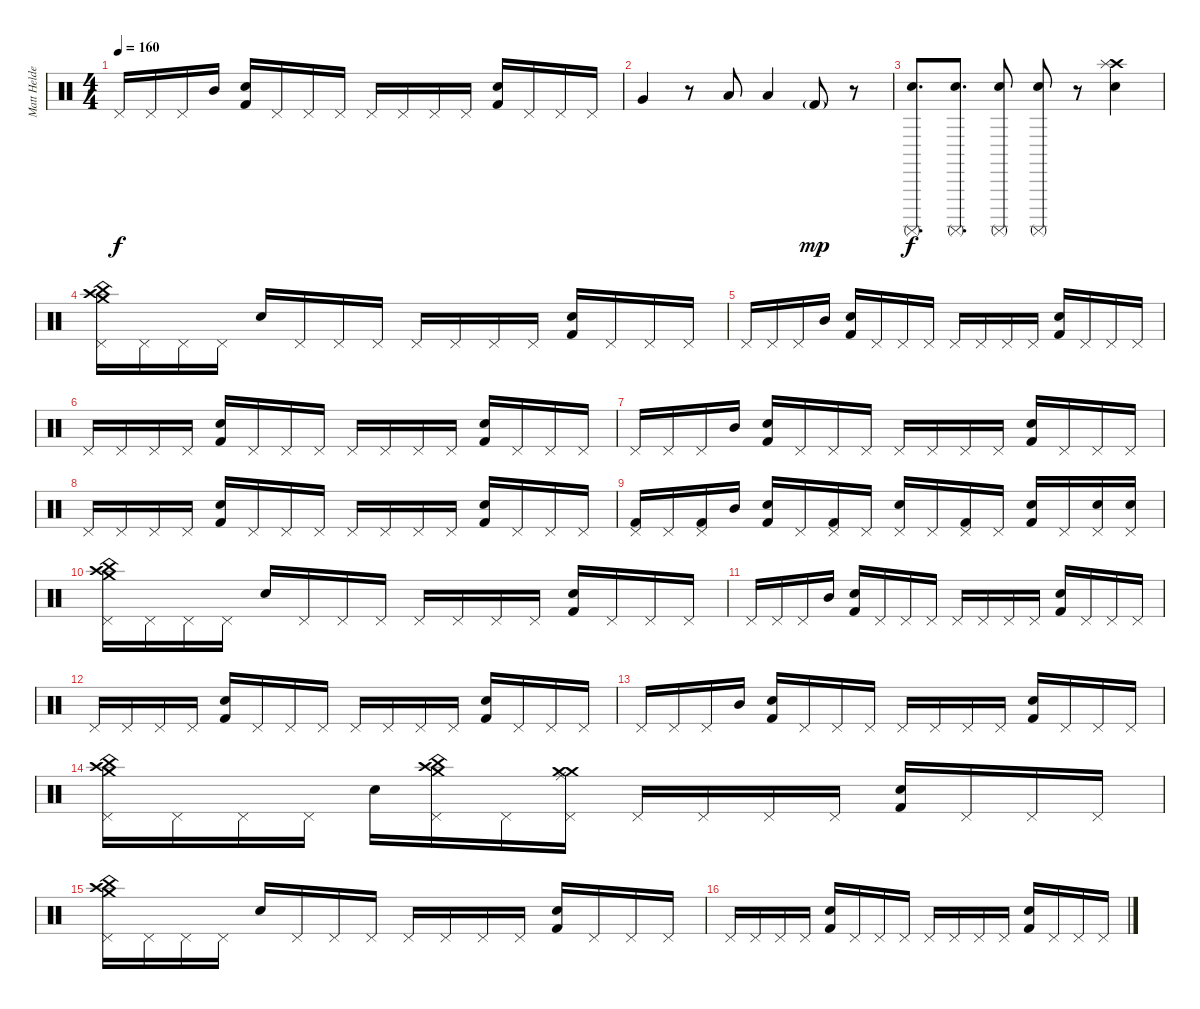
\track ("Matt Helders" "Matt Helde") {instrument percussion}
\staff {score}
\articulation defaults
\ts (4 4)
\tempo 160
\clef neutral
\ks c "Pedal Hi-Hat (hit)".16{dy f} "Pedal Hi-Hat (hit)".16 "Pedal Hi-Hat (hit)".16 "Mid Tom (hit)".16
("Snare (hit) 2" "Kick (hit) 2").16 "Pedal Hi-Hat (hit)".16 "Pedal Hi-Hat (hit)".16 "Pedal Hi-Hat (hit)".16 "Pedal Hi-Hat (hit)".16 "Pedal Hi-Hat (hit)".16 "Pedal Hi-Hat (hit)".16 "Pedal Hi-Hat (hit)".16 ("Snare (hit) 2" "Kick (hit) 2").16 "Pedal Hi-Hat (hit)".16 "Pedal Hi-Hat (hit)".16 "Pedal Hi-Hat (hit)".16 |
"Very Low Tom (hit)".4 r.8 "Low Tom (hit)".8 "Low Tom (hit)".4 "Kick (hit) 2"{g}.8{dy mp} r.8 |
("Surdo (mute)" "Electric Snare (hit)").8{d dy f} ("Surdo (mute)" "Electric Snare (hit)").8{d} ("Surdo (mute)" "Electric Snare (hit)").8 ("Surdo (mute)" "Electric Snare (hit)").8 r.8 ("Crash high (hit)" "Snare (hit) 2" "Splash (hit)").4 |
("Pedal Hi-Hat (hit)" "Crash medium (hit)" "Crash high (hit)" "China (hit)").16 "Pedal Hi-Hat (hit)".16 "Pedal Hi-Hat (hit)".16 "Pedal Hi-Hat (hit)".16 "Snare (hit) 2".16 "Pedal Hi-Hat (hit)".16 "Pedal Hi-Hat (hit)".16 "Pedal Hi-Hat (hit)".16 "Pedal Hi-Hat (hit)".16 "Pedal Hi-Hat (hit)".16 "Pedal Hi-Hat (hit)".16 "Pedal Hi-Hat (hit)".16 ("Snare (hit) 2" "Kick (hit) 2").16 "Pedal Hi-Hat (hit)".16 "Pedal Hi-Hat (hit)".16 "Pedal Hi-Hat (hit)".16 |
"Pedal Hi-Hat (hit)".16 "Pedal Hi-Hat (hit)".16 "Pedal Hi-Hat (hit)".16 "Mid Tom (hit)".16 ("Snare (hit) 2" "Kick (hit) 2").16 "Pedal Hi-Hat (hit)".16 "Pedal Hi-Hat (hit)".16 "Pedal Hi-Hat (hit)".16 "Pedal Hi-Hat (hit)".16 "Pedal Hi-Hat (hit)".16 "Pedal Hi-Hat (hit)".16 "Pedal Hi-Hat (hit)".16 ("Snare (hit) 2" "Kick (hit) 2").16 "Pedal Hi-Hat (hit)".16 "Pedal Hi-Hat (hit)".16 "Pedal Hi-Hat (hit)".16 |
"Pedal Hi-Hat (hit)".16 "Pedal Hi-Hat (hit)".16 "Pedal Hi-Hat (hit)".16 "Pedal Hi-Hat (hit)".16 ("Snare (hit) 2" "Kick (hit) 2").16 "Pedal Hi-Hat (hit)".16 "Pedal Hi-Hat (hit)".16 "Pedal Hi-Hat (hit)".16 "Pedal Hi-Hat (hit)".16 "Pedal Hi-Hat (hit)".16 "Pedal Hi-Hat (hit)".16 "Pedal Hi-Hat (hit)".16 ("Snare (hit) 2" "Kick (hit) 2").16 "Pedal Hi-Hat (hit)".16 "Pedal Hi-Hat (hit)".16 "Pedal Hi-Hat (hit)".16 |
"Pedal Hi-Hat (hit)".16 "Pedal Hi-Hat (hit)".16 "Pedal Hi-Hat (hit)".16 "Mid Tom (hit)".16 ("Snare (hit) 2" "Kick (hit) 2").16 "Pedal Hi-Hat (hit)".16 "Pedal Hi-Hat (hit)".16 "Pedal Hi-Hat (hit)".16 "Pedal Hi-Hat (hit)".16 "Pedal Hi-Hat (hit)".16 "Pedal Hi-Hat (hit)".16 "Pedal Hi-Hat (hit)".16 ("Snare (hit) 2" "Kick (hit) 2").16 "Pedal Hi-Hat (hit)".16 "Pedal Hi-Hat (hit)".16 "Pedal Hi-Hat (hit)".16 |
"Pedal Hi-Hat (hit)".16 "Pedal Hi-Hat (hit)".16 "Pedal Hi-Hat (hit)".16 "Pedal Hi-Hat (hit)".16 ("Snare (hit) 2" "Kick (hit) 2").16 "Pedal Hi-Hat (hit)".16 "Pedal Hi-Hat (hit)".16 "Pedal Hi-Hat (hit)".16 "Pedal Hi-Hat (hit)".16 "Pedal Hi-Hat (hit)".16 "Pedal Hi-Hat (hit)".16 "Pedal Hi-Hat (hit)".16 ("Snare (hit) 2" "Kick (hit) 2").16 "Pedal Hi-Hat (hit)".16 "Pedal Hi-Hat (hit)".16 "Pedal Hi-Hat (hit)".16 |
("Pedal Hi-Hat (hit)" "Kick (hit) 2").16 "Pedal Hi-Hat (hit)".16 ("Pedal Hi-Hat (hit)" "Kick (hit) 2").16 "Mid Tom (hit)".16 ("Snare (hit) 2" "Kick (hit) 2").16 "Pedal Hi-Hat (hit)".16 ("Pedal Hi-Hat (hit)" "Kick (hit) 2").16 "Pedal Hi-Hat (hit)".16 ("Pedal Hi-Hat (hit)" "Snare (hit)").16 "Pedal Hi-Hat (hit)".16 ("Pedal Hi-Hat (hit)" "Kick (hit) 2").16 "Pedal Hi-Hat (hit)".16 ("Snare (hit) 2" "Kick (hit) 2").16 "Pedal Hi-Hat (hit)".16 ("Pedal Hi-Hat (hit)" "Snare (hit) 2").16 ("Pedal Hi-Hat (hit)" "Snare (hit) 2").16 |
("Pedal Hi-Hat (hit)" "Crash medium (hit)" "Crash high (hit)" "China (hit)").16 "Pedal Hi-Hat (hit)".16 "Pedal Hi-Hat (hit)".16 "Pedal Hi-Hat (hit)".16 "Snare (hit) 2".16 "Pedal Hi-Hat (hit)".16 "Pedal Hi-Hat (hit)".16 "Pedal Hi-Hat (hit)".16 "Pedal Hi-Hat (hit)".16 "Pedal Hi-Hat (hit)".16 "Pedal Hi-Hat (hit)".16 "Pedal Hi-Hat (hit)".16 ("Snare (hit) 2" "Kick (hit) 2").16 "Pedal Hi-Hat (hit)".16 "Pedal Hi-Hat (hit)".16 "Pedal Hi-Hat (hit)".16 |
"Pedal Hi-Hat (hit)".16 "Pedal Hi-Hat (hit)".16 "Pedal Hi-Hat (hit)".16 "Mid Tom (hit)".16 ("Snare (hit) 2" "Kick (hit) 2").16 "Pedal Hi-Hat (hit)".16 "Pedal Hi-Hat (hit)".16 "Pedal Hi-Hat (hit)".16 "Pedal Hi-Hat (hit)".16 "Pedal Hi-Hat (hit)".16 "Pedal Hi-Hat (hit)".16 "Pedal Hi-Hat (hit)".16 ("Snare (hit) 2" "Kick (hit) 2").16 "Pedal Hi-Hat (hit)".16 "Pedal Hi-Hat (hit)".16 "Pedal Hi-Hat (hit)".16 |
"Pedal Hi-Hat (hit)".16 "Pedal Hi-Hat (hit)".16 "Pedal Hi-Hat (hit)".16 "Pedal Hi-Hat (hit)".16 ("Snare (hit) 2" "Kick (hit) 2").16 "Pedal Hi-Hat (hit)".16 "Pedal Hi-Hat (hit)".16 "Pedal Hi-Hat (hit)".16 "Pedal Hi-Hat (hit)".16 "Pedal Hi-Hat (hit)".16 "Pedal Hi-Hat (hit)".16 "Pedal Hi-Hat (hit)".16 ("Snare (hit) 2" "Kick (hit) 2").16 "Pedal Hi-Hat (hit)".16 "Pedal Hi-Hat (hit)".16 "Pedal Hi-Hat (hit)".16 |
"Pedal Hi-Hat (hit)".16 "Pedal Hi-Hat (hit)".16 "Pedal Hi-Hat (hit)".16 "Mid Tom (hit)".16 ("Snare (hit) 2" "Kick (hit) 2").16 "Pedal Hi-Hat (hit)".16 "Pedal Hi-Hat (hit)".16 "Pedal Hi-Hat (hit)".16 "Pedal Hi-Hat (hit)".16 "Pedal Hi-Hat (hit)".16 "Pedal Hi-Hat (hit)".16 "Pedal Hi-Hat (hit)".16 ("Snare (hit) 2" "Kick (hit) 2").16 "Pedal Hi-Hat (hit)".16 "Pedal Hi-Hat (hit)".16 "Pedal Hi-Hat (hit)".16 |
("Pedal Hi-Hat (hit)" "Crash medium (hit)" "Crash high (hit)" "China (hit)").16 "Pedal Hi-Hat (hit)".16 "Pedal Hi-Hat (hit)".16 "Pedal Hi-Hat (hit)".16 "Snare (hit) 2".16 ("Pedal Hi-Hat (hit)" "Crash medium (hit)" "Crash high (hit)" "China (hit)").16 "Pedal Hi-Hat (hit)".16 ("Pedal Hi-Hat (hit)" "Crash medium (hit)" "Ride (middle)" "Crash medium (hit)").16 "Pedal Hi-Hat (hit)".16 "Pedal Hi-Hat (hit)".16 "Pedal Hi-Hat (hit)".16 "Pedal Hi-Hat (hit)".16 ("Snare (hit) 2" "Kick (hit) 2").16 "Pedal Hi-Hat (hit)".16 "Pedal Hi-Hat (hit)".16 "Pedal Hi-Hat (hit)".16 |
("Pedal Hi-Hat (hit)" "Crash medium (hit)" "Crash high (hit)" "China (hit)").16 "Pedal Hi-Hat (hit)".16 "Pedal Hi-Hat (hit)".16 "Pedal Hi-Hat (hit)".16 "Snare (hit) 2".16 "Pedal Hi-Hat (hit)".16 "Pedal Hi-Hat (hit)".16 "Pedal Hi-Hat (hit)".16 "Pedal Hi-Hat (hit)".16 "Pedal Hi-Hat (hit)".16 "Pedal Hi-Hat (hit)".16 "Pedal Hi-Hat (hit)".16 ("Snare (hit) 2" "Kick (hit) 2").16 "Pedal Hi-Hat (hit)".16 "Pedal Hi-Hat (hit)".16 "Pedal Hi-Hat (hit)".16 |
"Pedal Hi-Hat (hit)".16 "Pedal Hi-Hat (hit)".16 "Pedal Hi-Hat (hit)".16 "Pedal Hi-Hat (hit)".16 ("Snare (hit) 2" "Kick (hit) 2").16 "Pedal Hi-Hat (hit)".16 "Pedal Hi-Hat (hit)".16 "Pedal Hi-Hat (hit)".16 "Pedal Hi-Hat (hit)".16 "Pedal Hi-Hat (hit)".16 "Pedal Hi-Hat (hit)".16 "Pedal Hi-Hat (hit)".16 ("Snare (hit) 2" "Kick (hit) 2").16 "Pedal Hi-Hat (hit)".16 "Pedal Hi-Hat (hit)".16 "Pedal Hi-Hat (hit)".16
